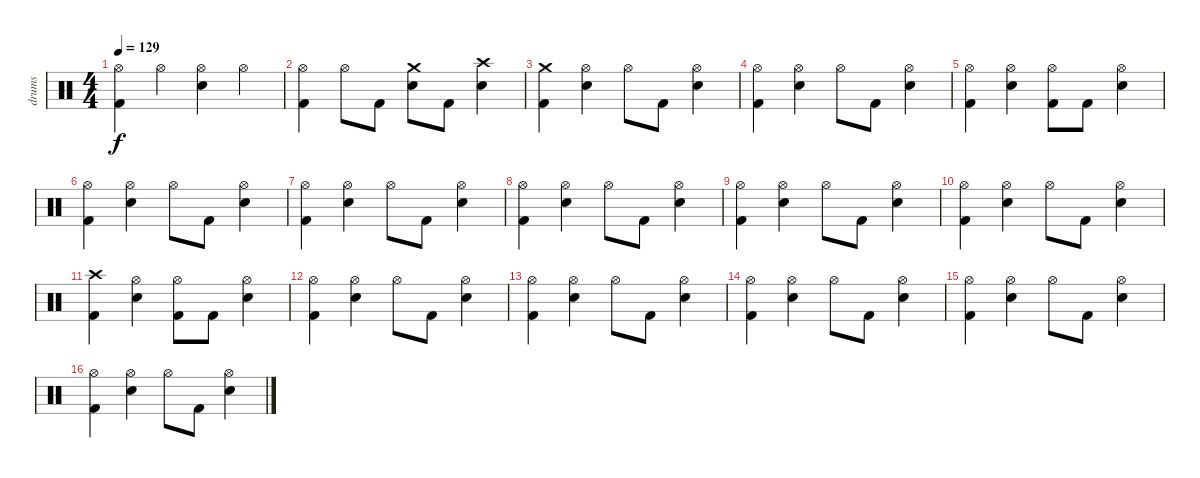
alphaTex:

\track ("drums" "drums") {instrument percussion}
\staff {score}
\articulation defaults
\ts (4 4)
\tempo 129
\clef neutral
\ks c
("Kick (hit) 2" "Hi-Hat (open)").4{dy f} "Hi-Hat (open)".4 ("Hi-Hat (open)" "Snare (hit) 2").4 "Hi-Hat (open)".4 |
("Kick (hit) 2" "Hi-Hat (open)").4 "Hi-Hat (open)".8 "Kick (hit) 2".8 ("Crash medium (hit)" "Snare (hit) 2").8 "Kick (hit) 2".8 ("Crash high (hit)" "Snare (hit) 2").4 |
("Kick (hit) 2" "Crash medium (hit)").4 ("Hi-Hat (open)" "Snare (hit) 2").4 "Hi-Hat (open)".8 "Kick (hit) 2".8 ("Hi-Hat (open)" "Snare (hit) 2").4 |
("Kick (hit) 2" "Hi-Hat (open)").4 ("Hi-Hat (open)" "Snare (hit) 2").4 "Hi-Hat (open)".8 "Kick (hit) 2".8 ("Hi-Hat (open)" "Snare (hit) 2").4 |
("Kick (hit) 2" "Hi-Hat (open)").4 ("Hi-Hat (open)" "Snare (hit) 2").4 ("Kick (hit) 2" "Hi-Hat (open)").8 "Kick (hit) 2".8 ("Hi-Hat (open)" "Snare (hit) 2").4 |
("Kick (hit) 2" "Hi-Hat (open)").4 ("Hi-Hat (open)" "Snare (hit) 2").4 "Hi-Hat (open)".8 "Kick (hit) 2".8 ("Hi-Hat (open)" "Snare (hit) 2").4 |
("Kick (hit) 2" "Hi-Hat (open)").4 ("Hi-Hat (open)" "Snare (hit) 2").4 "Hi-Hat (open)".8 "Kick (hit) 2".8 ("Hi-Hat (open)" "Snare (hit) 2").4 |
("Kick (hit) 2" "Hi-Hat (open)").4 ("Hi-Hat (open)" "Snare (hit) 2").4 "Hi-Hat (open)".8 "Kick (hit) 2".8 ("Hi-Hat (open)" "Snare (hit) 2").4 |
("Kick (hit) 2" "Hi-Hat (open)").4 ("Hi-Hat (open)" "Snare (hit) 2").4 "Hi-Hat (open)".8 "Kick (hit) 2".8 ("Hi-Hat (open)" "Snare (hit) 2").4 |
("Kick (hit) 2" "Hi-Hat (open)").4 ("Hi-Hat (open)" "Snare (hit) 2").4 "Hi-Hat (open)".8 "Kick (hit) 2".8 ("Hi-Hat (open)" "Snare (hit) 2").4 |
("Kick (hit) 2" "Crash high (hit)").4 ("Hi-Hat (open)" "Snare (hit) 2").4 ("Kick (hit) 2" "Hi-Hat (open)").8 "Kick (hit) 2".8 ("Hi-Hat (open)" "Snare (hit) 2").4 |
("Kick (hit) 2" "Hi-Hat (open)").4 ("Hi-Hat (open)" "Snare (hit) 2").4 "Hi-Hat (open)".8 "Kick (hit) 2".8 ("Hi-Hat (open)" "Snare (hit) 2").4 |
("Kick (hit) 2" "Hi-Hat (open)").4 ("Hi-Hat (open)" "Snare (hit) 2").4 "Hi-Hat (open)".8 "Kick (hit) 2".8 ("Hi-Hat (open)" "Snare (hit) 2").4 |
("Kick (hit) 2" "Hi-Hat (open)").4 ("Hi-Hat (open)" "Snare (hit) 2").4 "Hi-Hat (open)".8 "Kick (hit) 2".8 ("Hi-Hat (open)" "Snare (hit) 2").4 |
("Kick (hit) 2" "Hi-Hat (open)").4 ("Hi-Hat (open)" "Snare (hit) 2").4 "Hi-Hat (open)".8 "Kick (hit) 2".8 ("Hi-Hat (open)" "Snare (hit) 2").4 |
("Kick (hit) 2" "Hi-Hat (open)").4 ("Hi-Hat (open)" "Snare (hit) 2").4 "Hi-Hat (open)".8 "Kick (hit) 2".8 ("Hi-Hat (open)" "Snare (hit) 2").4
